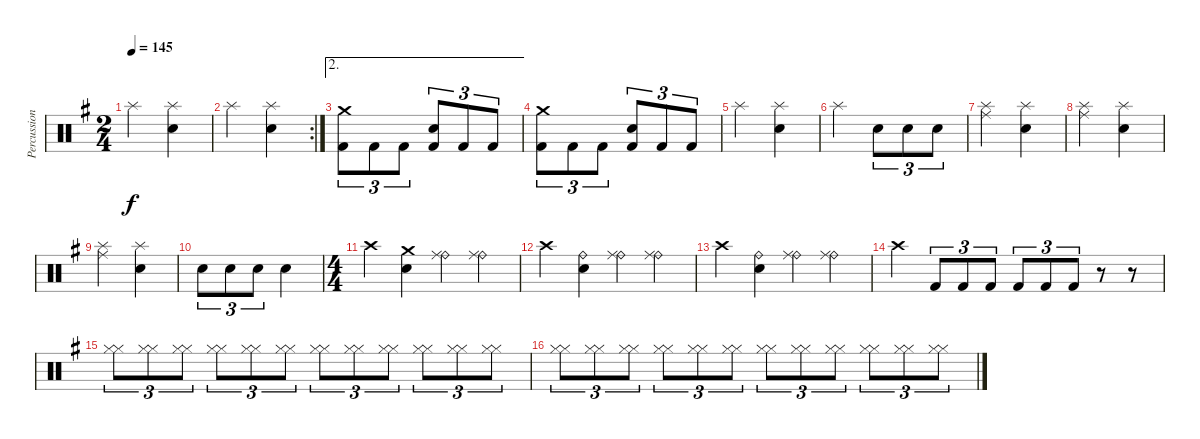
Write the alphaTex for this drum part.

\track ("Percussion" "Percussion") {instrument percussion}
\staff {score}
\articulation defaults
\ts (2 4)
\tempo 145
\clef neutral
\ks eminor "Splash (hit)".4{dy f}
("Electric Snare (hit)" "Splash (hit)").4 |
\rc 2 "Splash (hit)".4
("Electric Snare (hit)" "Splash (hit)").4 |
\ae 2
("Crash medium (hit)" "Kick (hit) 2").8{tu (3 2)} "Kick (hit) 2".8{tu (3 2)} "Kick (hit) 2".8{tu (3 2)} ("Electric Snare (hit)" "Kick (hit) 2").8{tu (3 2)} "Kick (hit) 2".8{tu (3 2)} "Kick (hit) 2".8{tu (3 2)} |
("Crash medium (hit)" "Kick (hit) 2").8{tu (3 2)} "Kick (hit) 2".8{tu (3 2)} "Kick (hit) 2".8{tu (3 2)} ("Electric Snare (hit)" "Kick (hit) 2").8{tu (3 2)} "Kick (hit) 2".8{tu (3 2)} "Kick (hit) 2".8{tu (3 2)} |
"Splash (hit)".4 ("Electric Snare (hit)" "Splash (hit)").4 |
"Splash (hit)".4 "Electric Snare (hit)".8{tu (3 2)} "Electric Snare (hit)".8{tu (3 2)} "Electric Snare (hit)".8{tu (3 2)} |
("Ride (middle)" "Splash (hit)").4 ("Electric Snare (hit)" "Splash (hit)").4 |
("Ride (middle)" "Splash (hit)").4 ("Electric Snare (hit)" "Splash (hit)").4 |
("Ride (middle)" "Splash (hit)").4 ("Electric Snare (hit)" "Splash (hit)").4 |
"Electric Snare (hit)".8{tu (3 2)} "Electric Snare (hit)".8{tu (3 2)} "Electric Snare (hit)".8{tu (3 2)} "Electric Snare (hit)".4 |
\ts (4 4)
"Crash high (hit)".4 ("Crash medium (hit)" "Electric Snare (hit)").4 ("Ride (bell)" "Ride (middle)").4 ("Ride (bell)" "Ride (middle)").4 |
"Crash high (hit)".4 ("Ride (bell)" "Electric Snare (hit)").4 ("Ride (bell)" "Ride (middle)").4 ("Ride (bell)" "Ride (middle)").4 |
"Crash high (hit)".4 ("Ride (bell)" "Electric Snare (hit)").4 ("Ride (bell)" "Ride (middle)").4 ("Ride (bell)" "Ride (middle)").4 |
"Crash high (hit)".4 "Kick (hit) 2".8{tu (3 2)} "Kick (hit) 2".8{tu (3 2)} "Kick (hit) 2".8{tu (3 2)} "Kick (hit) 2".8{tu (3 2)} "Kick (hit) 2".8{tu (3 2)} "Kick (hit) 2".8{tu (3 2)} r.8 r.8 |
("Hi-Hat (closed)" "Hi-Hat (closed)").8{tu (3 2)} ("Hi-Hat (closed)" "Hi-Hat (closed)").8{tu (3 2)} ("Hi-Hat (closed)" "Hi-Hat (closed)").8{tu (3 2)} ("Hi-Hat (closed)" "Hi-Hat (closed)").8{tu (3 2)} ("Hi-Hat (closed)" "Hi-Hat (closed)").8{tu (3 2)} ("Hi-Hat (closed)" "Hi-Hat (closed)").8{tu (3 2)} ("Hi-Hat (closed)" "Hi-Hat (closed)").8{tu (3 2)} ("Hi-Hat (closed)" "Hi-Hat (closed)").8{tu (3 2)} ("Hi-Hat (closed)" "Hi-Hat (closed)").8{tu (3 2)} ("Hi-Hat (closed)" "Hi-Hat (closed)").8{tu (3 2)} ("Hi-Hat (closed)" "Hi-Hat (closed)").8{tu (3 2)} ("Hi-Hat (closed)" "Hi-Hat (closed)").8{tu (3 2)} |
("Hi-Hat (closed)" "Hi-Hat (closed)").8{tu (3 2)} ("Hi-Hat (closed)" "Hi-Hat (closed)").8{tu (3 2)} ("Hi-Hat (closed)" "Hi-Hat (closed)").8{tu (3 2)} ("Hi-Hat (closed)" "Hi-Hat (closed)").8{tu (3 2)} ("Hi-Hat (closed)" "Hi-Hat (closed)").8{tu (3 2)} ("Hi-Hat (closed)" "Hi-Hat (closed)").8{tu (3 2)} ("Hi-Hat (closed)" "Hi-Hat (closed)").8{tu (3 2)} ("Hi-Hat (closed)" "Hi-Hat (closed)").8{tu (3 2)} ("Hi-Hat (closed)" "Hi-Hat (closed)").8{tu (3 2)} ("Hi-Hat (closed)" "Hi-Hat (closed)").8{tu (3 2)} ("Hi-Hat (closed)" "Hi-Hat (closed)").8{tu (3 2)} ("Hi-Hat (closed)" "Hi-Hat (closed)").8{tu (3 2)}
